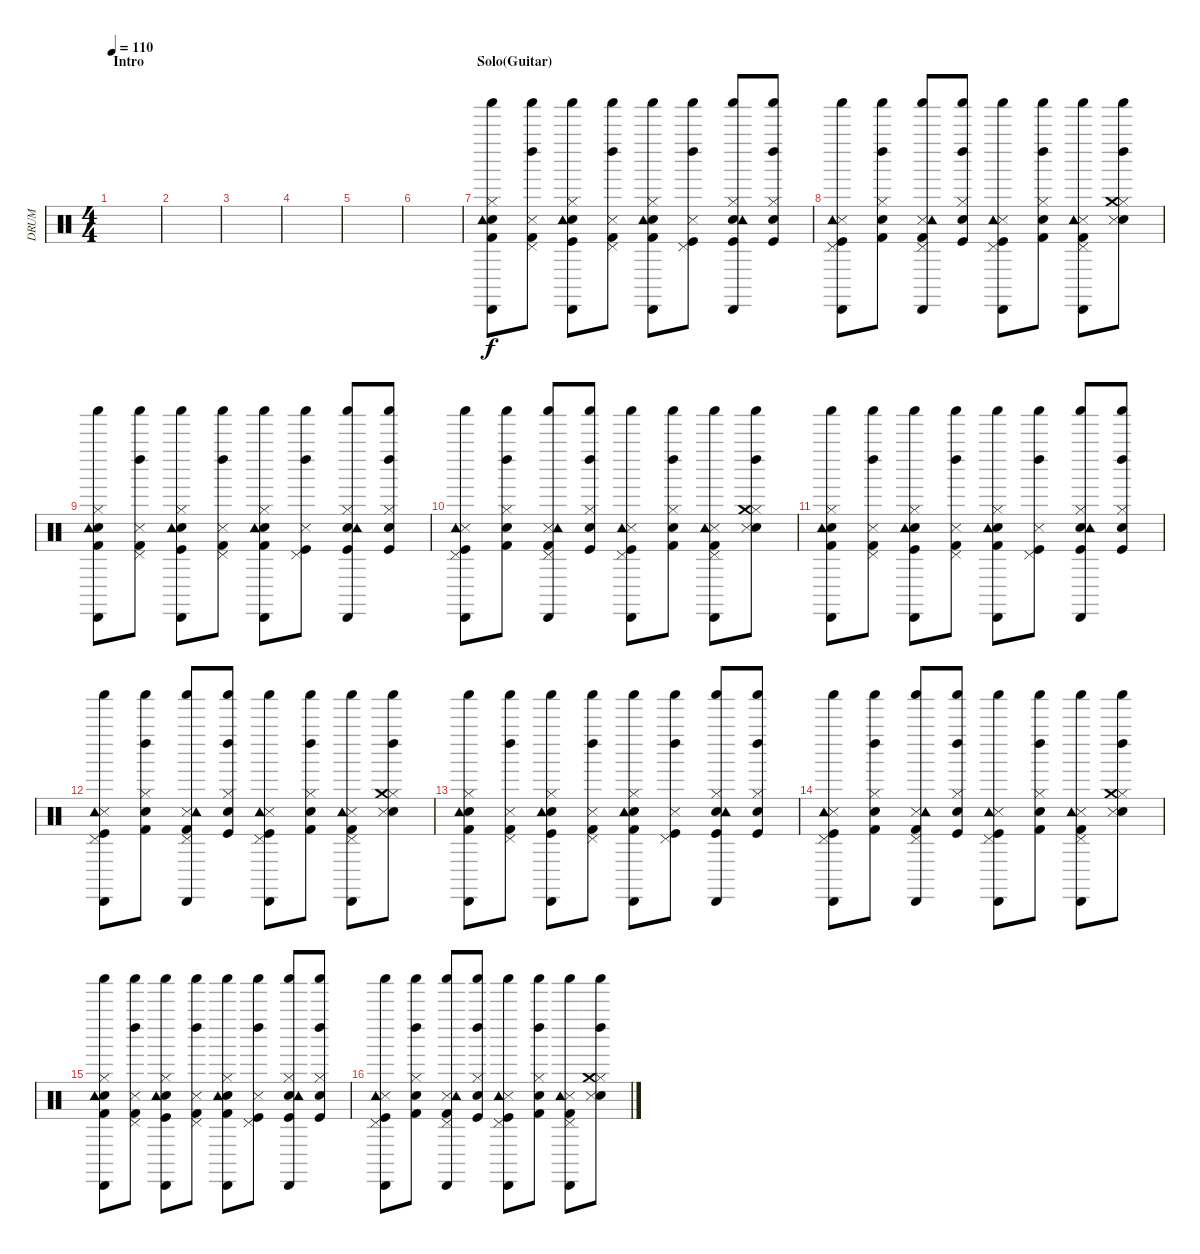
\track ("DRUM" "DRUM") {instrument percussion}
\staff {score}
\articulation defaults
\ts (4 4)
\section ("" "Intro")
\tempo 110
\clef neutral
\ks c
|
|
|
|
|
|
\section ("" "Solo(Guitar)")
("Kick (hit) 2" "Snare (hit) 2" "Hi-Hat (closed)" "Shaker (hit)" "Cabasa (hit)" "Tambourine (hit)").8 ("Kick (hit) 2" "Snare (side stick) 3" "Pedal Hi-Hat (hit)" "Shaker (hit)" "Left Maraca (hit)").8 ("Kick (hit)" "Snare (hit) 2" "Hi-Hat (closed)" "Shaker (hit)" "Cabasa (hit)" "Tambourine (hit)").8 ("Kick (hit) 2" "Snare (side stick) 3" "Pedal Hi-Hat (hit)" "Shaker (hit)" "Left Maraca (hit)").8 ("Kick (hit) 2" "Snare (hit) 2" "Hi-Hat (closed)" "Shaker (hit)" "Cabasa (hit)" "Tambourine (hit)").8 ("Kick (hit)" "Snare (side stick) 3" "Pedal Hi-Hat (hit)" "Shaker (hit)" "Left Maraca (hit)").8 ("Kick (hit)" "Snare (hit) 2" "Hi-Hat (closed)" "Shaker (hit)" "Cabasa (hit)" "Tambourine (hit)").8 ("Kick (hit)" "Snare (hit) 2" "Hi-Hat (closed)" "Shaker (hit)" "Left Maraca (hit)").8 |
("Kick (hit)" "Snare (side stick) 3" "Pedal Hi-Hat (hit)" "Shaker (hit)" "Cabasa (hit)" "Tambourine (hit)").8 ("Kick (hit) 2" "Snare (hit) 2" "Hi-Hat (closed)" "Shaker (hit)" "Left Maraca (hit)").8 ("Kick (hit) 2" "Snare (side stick) 3" "Pedal Hi-Hat (hit)" "Shaker (hit)" "Cabasa (hit)" "Tambourine (hit)").8 ("Kick (hit)" "Snare (hit) 2" "Hi-Hat (closed)" "Shaker (hit)" "Left Maraca (hit)").8 ("Kick (hit)" "Snare (side stick) 3" "Pedal Hi-Hat (hit)" "Shaker (hit)" "Cabasa (hit)" "Tambourine (hit)").8 ("Kick (hit) 2" "Snare (hit) 2" "Hi-Hat (closed)" "Shaker (hit)" "Left Maraca (hit)").8 ("Kick (hit) 2" "Snare (side stick) 3" "Pedal Hi-Hat (hit)" "Shaker (hit)" "Cabasa (hit)" "Tambourine (hit)").8 ("Electric Snare (hit)" "Snare (side stick) 3" "Hi-Hat (closed)" "Shaker (hit)" "Left Maraca (hit)" "Crash medium (hit)").8 |
("Kick (hit) 2" "Snare (hit) 2" "Hi-Hat (closed)" "Shaker (hit)" "Cabasa (hit)" "Tambourine (hit)").8 ("Kick (hit) 2" "Snare (side stick) 3" "Pedal Hi-Hat (hit)" "Shaker (hit)" "Left Maraca (hit)").8 ("Kick (hit)" "Snare (hit) 2" "Hi-Hat (closed)" "Shaker (hit)" "Cabasa (hit)" "Tambourine (hit)").8 ("Kick (hit) 2" "Snare (side stick) 3" "Pedal Hi-Hat (hit)" "Shaker (hit)" "Left Maraca (hit)").8 ("Kick (hit) 2" "Snare (hit) 2" "Hi-Hat (closed)" "Shaker (hit)" "Cabasa (hit)" "Tambourine (hit)").8 ("Kick (hit)" "Snare (side stick) 3" "Pedal Hi-Hat (hit)" "Shaker (hit)" "Left Maraca (hit)").8 ("Kick (hit)" "Snare (hit) 2" "Hi-Hat (closed)" "Shaker (hit)" "Cabasa (hit)" "Tambourine (hit)").8 ("Kick (hit)" "Snare (hit) 2" "Hi-Hat (closed)" "Shaker (hit)" "Left Maraca (hit)").8 |
("Kick (hit)" "Snare (side stick) 3" "Pedal Hi-Hat (hit)" "Shaker (hit)" "Cabasa (hit)" "Tambourine (hit)").8 ("Kick (hit) 2" "Snare (hit) 2" "Hi-Hat (closed)" "Shaker (hit)" "Left Maraca (hit)").8 ("Kick (hit) 2" "Snare (side stick) 3" "Pedal Hi-Hat (hit)" "Shaker (hit)" "Cabasa (hit)" "Tambourine (hit)").8 ("Kick (hit)" "Snare (hit) 2" "Hi-Hat (closed)" "Shaker (hit)" "Left Maraca (hit)").8 ("Kick (hit)" "Snare (side stick) 3" "Pedal Hi-Hat (hit)" "Shaker (hit)" "Cabasa (hit)" "Tambourine (hit)").8 ("Kick (hit) 2" "Snare (hit) 2" "Hi-Hat (closed)" "Shaker (hit)" "Left Maraca (hit)").8 ("Kick (hit) 2" "Snare (side stick) 3" "Pedal Hi-Hat (hit)" "Shaker (hit)" "Cabasa (hit)" "Tambourine (hit)").8 ("Electric Snare (hit)" "Snare (side stick) 3" "Hi-Hat (closed)" "Shaker (hit)" "Left Maraca (hit)" "Crash medium (hit)").8 |
("Kick (hit) 2" "Snare (hit) 2" "Hi-Hat (closed)" "Shaker (hit)" "Cabasa (hit)" "Tambourine (hit)").8 ("Kick (hit) 2" "Snare (side stick) 3" "Pedal Hi-Hat (hit)" "Shaker (hit)" "Left Maraca (hit)").8 ("Kick (hit)" "Snare (hit) 2" "Hi-Hat (closed)" "Shaker (hit)" "Cabasa (hit)" "Tambourine (hit)").8 ("Kick (hit) 2" "Snare (side stick) 3" "Pedal Hi-Hat (hit)" "Shaker (hit)" "Left Maraca (hit)").8 ("Kick (hit) 2" "Snare (hit) 2" "Hi-Hat (closed)" "Shaker (hit)" "Cabasa (hit)" "Tambourine (hit)").8 ("Kick (hit)" "Snare (side stick) 3" "Pedal Hi-Hat (hit)" "Shaker (hit)" "Left Maraca (hit)").8 ("Kick (hit)" "Snare (hit) 2" "Hi-Hat (closed)" "Shaker (hit)" "Cabasa (hit)" "Tambourine (hit)").8 ("Kick (hit)" "Snare (hit) 2" "Hi-Hat (closed)" "Shaker (hit)" "Left Maraca (hit)").8 |
("Kick (hit)" "Snare (side stick) 3" "Pedal Hi-Hat (hit)" "Shaker (hit)" "Cabasa (hit)" "Tambourine (hit)").8 ("Kick (hit) 2" "Snare (hit) 2" "Hi-Hat (closed)" "Shaker (hit)" "Left Maraca (hit)").8 ("Kick (hit) 2" "Snare (side stick) 3" "Pedal Hi-Hat (hit)" "Shaker (hit)" "Cabasa (hit)" "Tambourine (hit)").8 ("Kick (hit)" "Snare (hit) 2" "Hi-Hat (closed)" "Shaker (hit)" "Left Maraca (hit)").8 ("Kick (hit)" "Snare (side stick) 3" "Pedal Hi-Hat (hit)" "Shaker (hit)" "Cabasa (hit)" "Tambourine (hit)").8 ("Kick (hit) 2" "Snare (hit) 2" "Hi-Hat (closed)" "Shaker (hit)" "Left Maraca (hit)").8 ("Kick (hit) 2" "Snare (side stick) 3" "Pedal Hi-Hat (hit)" "Shaker (hit)" "Cabasa (hit)" "Tambourine (hit)").8 ("Electric Snare (hit)" "Snare (side stick) 3" "Hi-Hat (closed)" "Shaker (hit)" "Left Maraca (hit)" "Crash medium (hit)").8 |
("Kick (hit) 2" "Snare (hit) 2" "Hi-Hat (closed)" "Shaker (hit)" "Cabasa (hit)" "Tambourine (hit)").8 ("Kick (hit) 2" "Snare (side stick) 3" "Pedal Hi-Hat (hit)" "Shaker (hit)" "Left Maraca (hit)").8 ("Kick (hit)" "Snare (hit) 2" "Hi-Hat (closed)" "Shaker (hit)" "Cabasa (hit)" "Tambourine (hit)").8 ("Kick (hit) 2" "Snare (side stick) 3" "Pedal Hi-Hat (hit)" "Shaker (hit)" "Left Maraca (hit)").8 ("Kick (hit) 2" "Snare (hit) 2" "Hi-Hat (closed)" "Shaker (hit)" "Cabasa (hit)" "Tambourine (hit)").8 ("Kick (hit)" "Snare (side stick) 3" "Pedal Hi-Hat (hit)" "Shaker (hit)" "Left Maraca (hit)").8 ("Kick (hit)" "Snare (hit) 2" "Hi-Hat (closed)" "Shaker (hit)" "Cabasa (hit)" "Tambourine (hit)").8 ("Kick (hit)" "Snare (hit) 2" "Hi-Hat (closed)" "Shaker (hit)" "Left Maraca (hit)").8 |
("Kick (hit)" "Snare (side stick) 3" "Pedal Hi-Hat (hit)" "Shaker (hit)" "Cabasa (hit)" "Tambourine (hit)").8 ("Kick (hit) 2" "Snare (hit) 2" "Hi-Hat (closed)" "Shaker (hit)" "Left Maraca (hit)").8 ("Kick (hit) 2" "Snare (side stick) 3" "Pedal Hi-Hat (hit)" "Shaker (hit)" "Cabasa (hit)" "Tambourine (hit)").8 ("Kick (hit)" "Snare (hit) 2" "Hi-Hat (closed)" "Shaker (hit)" "Left Maraca (hit)").8 ("Kick (hit)" "Snare (side stick) 3" "Pedal Hi-Hat (hit)" "Shaker (hit)" "Cabasa (hit)" "Tambourine (hit)").8 ("Kick (hit) 2" "Snare (hit) 2" "Hi-Hat (closed)" "Shaker (hit)" "Left Maraca (hit)").8 ("Kick (hit) 2" "Snare (side stick) 3" "Pedal Hi-Hat (hit)" "Shaker (hit)" "Cabasa (hit)" "Tambourine (hit)").8 ("Electric Snare (hit)" "Snare (side stick) 3" "Hi-Hat (closed)" "Shaker (hit)" "Left Maraca (hit)" "Crash medium (hit)").8 |
("Kick (hit) 2" "Snare (hit) 2" "Hi-Hat (closed)" "Shaker (hit)" "Cabasa (hit)" "Tambourine (hit)").8 ("Kick (hit) 2" "Snare (side stick) 3" "Pedal Hi-Hat (hit)" "Shaker (hit)" "Left Maraca (hit)").8 ("Kick (hit)" "Snare (hit) 2" "Hi-Hat (closed)" "Shaker (hit)" "Cabasa (hit)" "Tambourine (hit)").8 ("Kick (hit) 2" "Snare (side stick) 3" "Pedal Hi-Hat (hit)" "Shaker (hit)" "Left Maraca (hit)").8 ("Kick (hit) 2" "Snare (hit) 2" "Hi-Hat (closed)" "Shaker (hit)" "Cabasa (hit)" "Tambourine (hit)").8 ("Kick (hit)" "Snare (side stick) 3" "Pedal Hi-Hat (hit)" "Shaker (hit)" "Left Maraca (hit)").8 ("Kick (hit)" "Snare (hit) 2" "Hi-Hat (closed)" "Shaker (hit)" "Cabasa (hit)" "Tambourine (hit)").8 ("Kick (hit)" "Snare (hit) 2" "Hi-Hat (closed)" "Shaker (hit)" "Left Maraca (hit)").8 |
("Kick (hit)" "Snare (side stick) 3" "Pedal Hi-Hat (hit)" "Shaker (hit)" "Cabasa (hit)" "Tambourine (hit)").8 ("Kick (hit) 2" "Snare (hit) 2" "Hi-Hat (closed)" "Shaker (hit)" "Left Maraca (hit)").8 ("Kick (hit) 2" "Snare (side stick) 3" "Pedal Hi-Hat (hit)" "Shaker (hit)" "Cabasa (hit)" "Tambourine (hit)").8 ("Kick (hit)" "Snare (hit) 2" "Hi-Hat (closed)" "Shaker (hit)" "Left Maraca (hit)").8 ("Kick (hit)" "Snare (side stick) 3" "Pedal Hi-Hat (hit)" "Shaker (hit)" "Cabasa (hit)" "Tambourine (hit)").8 ("Kick (hit) 2" "Snare (hit) 2" "Hi-Hat (closed)" "Shaker (hit)" "Left Maraca (hit)").8 ("Kick (hit) 2" "Snare (side stick) 3" "Pedal Hi-Hat (hit)" "Shaker (hit)" "Cabasa (hit)" "Tambourine (hit)").8 ("Electric Snare (hit)" "Snare (side stick) 3" "Hi-Hat (closed)" "Shaker (hit)" "Left Maraca (hit)" "Crash medium (hit)").8
